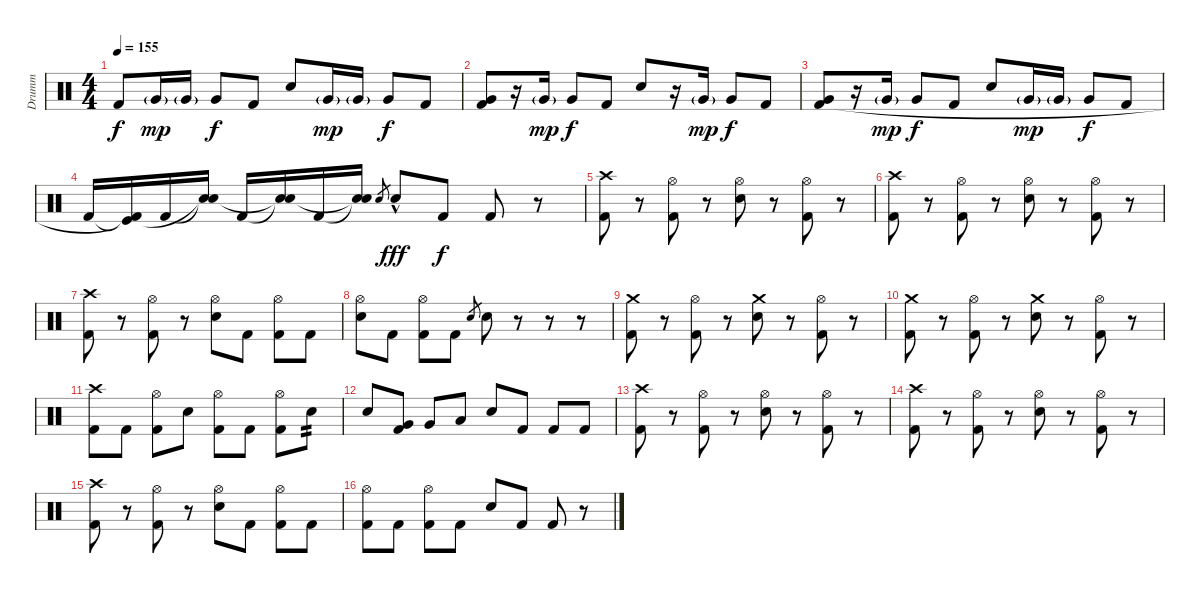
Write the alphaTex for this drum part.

\track ("Drumm" "Drumm") {instrument percussion}
\staff {score}
\articulation defaults
\ts (4 4)
\tempo 155
\clef neutral
\ks c "Kick (hit) 2".8{dy f} "Very Low Tom (hit)"{g}.16{dy mp} "Very Low Tom (hit)"{g}.16 "Very Low Tom (hit)".8{dy f} "Kick (hit) 2".8 "Snare (hit) 2".8 "Very Low Tom (hit)"{g}.16{dy mp} "Very Low Tom (hit)"{g}.16 "Very Low Tom (hit)".8{dy f} "Kick (hit) 2".8
|
("Very Low Tom (hit)" "Kick (hit) 2").8 r.16 "Very Low Tom (hit)"{g}.16{dy mp} "Very Low Tom (hit)".8{dy f} "Kick (hit) 2".8 "Snare (hit) 2".8 r.16 "Very Low Tom (hit)"{g}.16{dy mp} "Very Low Tom (hit)".8{dy f} "Kick (hit) 2".8 |
("Very Low Tom (hit)" "Kick (hit) 2").8 r.16 "Very Low Tom (hit)"{g}.16{dy mp} "Very Low Tom (hit)".8{dy f} "Kick (hit) 2".8 "Snare (hit) 2".8 "Very Low Tom (hit)"{g}.16{dy mp} "Very Low Tom (hit)"{g}.16 "Very Low Tom (hit)".8{dy f} "Kick (hit) 2".8 |
"Kick (hit) 2".16 ("Kick (hit) 2"{t} "Kick (hit)"{t}).16 "Kick (hit) 2".16 ("Snare (hit)"{t} "Snare (hit)"{t}).16 "Kick (hit) 2".16 ("Snare (hit)"{t} "Snare (hit)"{t}).16 "Kick (hit) 2".16 ("Snare (hit)"{t} "Snare (hit)"{t}).16 "Snare (hit) 2".8{gr} "Snare (hit) 2"{hac}.8{dy fff} "Kick (hit) 2".8{dy f} "Kick (hit) 2".8 r.8 |
("Crash high (hit)" "Kick (hit) 2").8 r.8 ("Hi-Hat (open)" "Kick (hit) 2").8 r.8 ("Hi-Hat (open)" "Snare (hit) 2").8 r.8 ("Hi-Hat (open)" "Kick (hit) 2").8 r.8 |
("Crash high (hit)" "Kick (hit) 2").8 r.8 ("Hi-Hat (open)" "Kick (hit) 2").8 r.8 ("Hi-Hat (open)" "Snare (hit) 2").8 r.8 ("Hi-Hat (open)" "Kick (hit) 2").8 r.8 |
("Crash high (hit)" "Kick (hit) 2").8 r.8 ("Hi-Hat (open)" "Kick (hit) 2").8 r.8 ("Hi-Hat (open)" "Snare (hit) 2").8 "Kick (hit) 2".8 ("Hi-Hat (open)" "Kick (hit) 2").8 "Kick (hit) 2".8 |
("Hi-Hat (open)" "Snare (hit) 2").8 "Kick (hit) 2".8 ("Hi-Hat (open)" "Kick (hit) 2").8 "Kick (hit) 2".8 "Snare (hit) 2".8{gr} "Snare (hit) 2".8 r.8 r.8 r.8 |
("Crash medium (hit)" "Kick (hit) 2").8 r.8 ("Hi-Hat (open)" "Kick (hit) 2").8 r.8 ("Crash medium (hit)" "Snare (hit) 2").8 r.8 ("Hi-Hat (open)" "Kick (hit) 2").8 r.8 |
("Crash medium (hit)" "Kick (hit) 2").8 r.8 ("Hi-Hat (open)" "Kick (hit) 2").8 r.8 ("Crash medium (hit)" "Snare (hit) 2").8 r.8 ("Hi-Hat (open)" "Kick (hit) 2").8 r.8 |
("Crash high (hit)" "Kick (hit) 2").8 "Kick (hit) 2".8 ("Hi-Hat (open)" "Kick (hit) 2").8 "Snare (hit) 2".8 ("Hi-Hat (open)" "Kick (hit) 2").8 "Kick (hit) 2".8 ("Hi-Hat (open)" "Kick (hit) 2").8 "Snare (hit) 2".8{tp 2} |
"Snare (hit) 2".8 ("Very Low Tom (hit)" "Kick (hit) 2").8 "Very Low Tom (hit)".8 "Low Tom (hit)".8 "Snare (hit) 2".8 "Kick (hit) 2".8 "Kick (hit) 2".8 "Kick (hit) 2".8 |
("Crash high (hit)" "Kick (hit) 2").8 r.8 ("Hi-Hat (open)" "Kick (hit) 2").8 r.8 ("Hi-Hat (open)" "Snare (hit) 2").8 r.8 ("Hi-Hat (open)" "Kick (hit) 2").8 r.8 |
("Crash high (hit)" "Kick (hit) 2").8 r.8 ("Hi-Hat (open)" "Kick (hit) 2").8 r.8 ("Hi-Hat (open)" "Snare (hit) 2").8 r.8 ("Hi-Hat (open)" "Kick (hit) 2").8 r.8 |
("Crash high (hit)" "Kick (hit) 2").8 r.8 ("Hi-Hat (open)" "Kick (hit) 2").8 r.8 ("Hi-Hat (open)" "Snare (hit) 2").8 "Kick (hit) 2".8 ("Hi-Hat (open)" "Kick (hit) 2").8 "Kick (hit) 2".8 |
("Hi-Hat (open)" "Kick (hit) 2").8 "Kick (hit) 2".8 ("Hi-Hat (open)" "Kick (hit) 2").8 "Kick (hit) 2".8 "Snare (hit) 2".8 "Kick (hit) 2".8 "Kick (hit) 2".8 r.8
